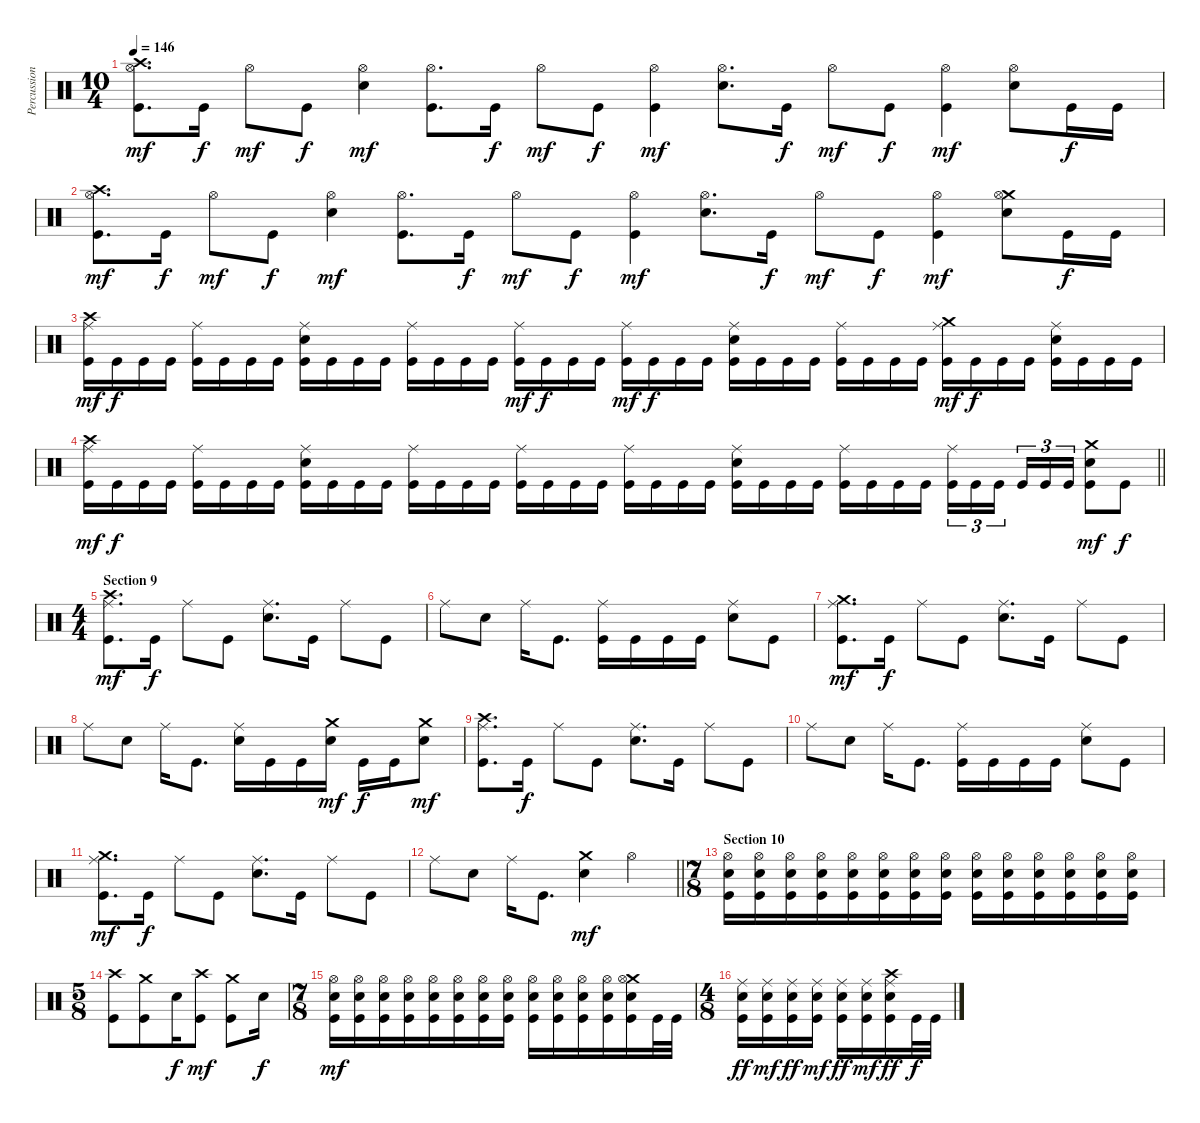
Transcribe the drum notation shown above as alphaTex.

\track ("Percussion" "Percussion") {instrument percussion}
\staff {score}
\articulation defaults
\ts (10 4)
\tempo 146
\clef neutral
\ks c
("Crash high (hit)" "Hi-Hat (open)" "Kick (hit)").8{d dy mf} "Kick (hit)".16{dy f} "Hi-Hat (open)".8{dy mf} "Kick (hit)".8{dy f} ("Hi-Hat (open)" "Electric Snare (hit)").4{dy mf} ("Hi-Hat (open)" "Kick (hit)").8{d} "Kick (hit)".16{dy f} "Hi-Hat (open)".8{dy mf} "Kick (hit)".8{dy f} ("Hi-Hat (open)" "Kick (hit)").4{dy mf} ("Hi-Hat (open)" "Electric Snare (hit)").8{d} "Kick (hit)".16{dy f} "Hi-Hat (open)".8{dy mf} "Kick (hit)".8{dy f} ("Hi-Hat (open)" "Kick (hit)").4{dy mf} ("Hi-Hat (open)" "Electric Snare (hit)").8 "Kick (hit)".16{dy f} "Kick (hit)".16 |
("Crash high (hit)" "Hi-Hat (open)" "Kick (hit)").8{d dy mf} "Kick (hit)".16{dy f} "Hi-Hat (open)".8{dy mf} "Kick (hit)".8{dy f} ("Hi-Hat (open)" "Electric Snare (hit)").4{dy mf} ("Hi-Hat (open)" "Kick (hit)").8{d} "Kick (hit)".16{dy f} "Hi-Hat (open)".8{dy mf} "Kick (hit)".8{dy f} ("Hi-Hat (open)" "Kick (hit)").4{dy mf} ("Hi-Hat (open)" "Electric Snare (hit)").8{d} "Kick (hit)".16{dy f} "Hi-Hat (open)".8{dy mf} "Kick (hit)".8{dy f} ("Hi-Hat (open)" "Kick (hit)").4{dy mf} ("Crash medium (hit)" "Hi-Hat (open)" "Electric Snare (hit)").8 "Kick (hit)".16{dy f} "Kick (hit)".16 |
("Crash high (hit)" "Ride (middle)" "Kick (hit)").16{dy mf} "Kick (hit)".16{dy f} "Kick (hit)".16 "Kick (hit)".16 ("Ride (middle)" "Kick (hit)").16 "Kick (hit)".16 "Kick (hit)".16 "Kick (hit)".16 ("Ride (middle)" "Electric Snare (hit)" "Kick (hit)").16 "Kick (hit)".16 "Kick (hit)".16 "Kick (hit)".16 ("Ride (middle)" "Kick (hit)").16 "Kick (hit)".16 "Kick (hit)".16 "Kick (hit)".16 ("Ride (middle)" "Kick (hit)").16{dy mf} "Kick (hit)".16{dy f} "Kick (hit)".16 "Kick (hit)".16 ("Ride (middle)" "Kick (hit)").16{dy mf} "Kick (hit)".16{dy f} "Kick (hit)".16 "Kick (hit)".16 ("Ride (middle)" "Electric Snare (hit)" "Kick (hit)").16 "Kick (hit)".16 "Kick (hit)".16 "Kick (hit)".16 ("Ride (middle)" "Kick (hit)").16 "Kick (hit)".16 "Kick (hit)".16 "Kick (hit)".16 ("Crash medium (hit)" "Ride (middle)" "Kick (hit)").16{dy mf} "Kick (hit)".16{dy f} "Kick (hit)".16 "Kick (hit)".16 ("Ride (middle)" "Electric Snare (hit)" "Kick (hit)").16 "Kick (hit)".16 "Kick (hit)".16 "Kick (hit)".16 |
\barLineRight lightlight
("Crash high (hit)" "Ride (middle)" "Kick (hit)").16{dy mf} "Kick (hit)".16{dy f} "Kick (hit)".16 "Kick (hit)".16 ("Ride (middle)" "Kick (hit)").16 "Kick (hit)".16 "Kick (hit)".16 "Kick (hit)".16 ("Ride (middle)" "Electric Snare (hit)" "Kick (hit)").16 "Kick (hit)".16 "Kick (hit)".16 "Kick (hit)".16 ("Ride (middle)" "Kick (hit)").16 "Kick (hit)".16 "Kick (hit)".16 "Kick (hit)".16 ("Ride (middle)" "Kick (hit)").16 "Kick (hit)".16 "Kick (hit)".16 "Kick (hit)".16 ("Ride (middle)" "Kick (hit)").16 "Kick (hit)".16 "Kick (hit)".16 "Kick (hit)".16 ("Ride (middle)" "Electric Snare (hit)" "Kick (hit)").16 "Kick (hit)".16 "Kick (hit)".16 "Kick (hit)".16 ("Ride (middle)" "Kick (hit)").16 "Kick (hit)".16 "Kick (hit)".16 "Kick (hit)".16 ("Ride (middle)" "Kick (hit)").16{tu (3 2)} "Kick (hit)".16{tu (3 2)} "Kick (hit)".16{tu (3 2) beam splitsecondary} "Kick (hit)".16{tu (3 2)} "Kick (hit)".16{tu (3 2)} "Kick (hit)".16{tu (3 2)} ("Crash medium (hit)" "Electric Snare (hit)" "Kick (hit)").8{dy mf} "Kick (hit)".8{dy f} |
\ts (4 4)
\section ("" "Section 9")
("Crash high (hit)" "Ride (middle)" "Kick (hit)").8{d dy mf} "Kick (hit)".16{dy f} "Ride (middle)".8 "Kick (hit)".8 ("Ride (middle)" "Electric Snare (hit)").8{d} "Kick (hit)".16 "Ride (middle)".8 "Kick (hit)".8 |
"Ride (middle)".8 "Electric Snare (hit)".8 "Ride (middle)".16 "Kick (hit)".8{d} ("Ride (middle)" "Kick (hit)").16 "Kick (hit)".16 "Kick (hit)".16 "Kick (hit)".16 ("Ride (middle)" "Electric Snare (hit)").8 "Kick (hit)".8 |
("Crash medium (hit)" "Ride (middle)" "Kick (hit)").8{d dy mf} "Kick (hit)".16{dy f} "Ride (middle)".8 "Kick (hit)".8 ("Ride (middle)" "Electric Snare (hit)").8{d} "Kick (hit)".16 "Ride (middle)".8 "Kick (hit)".8 |
"Ride (middle)".8 "Electric Snare (hit)".8 "Ride (middle)".16 "Kick (hit)".8{d} ("Ride (middle)" "Electric Snare (hit)").16 "Kick (hit)".16 "Kick (hit)".16 ("Crash medium (hit)" "Electric Snare (hit)").16{dy mf} "Kick (hit)".16{dy f} "Kick (hit)".16 ("Crash medium (hit)" "Electric Snare (hit)").8{dy mf} |
("Crash high (hit)" "Ride (middle)" "Kick (hit)").8{d} "Kick (hit)".16{dy f} "Ride (middle)".8 "Kick (hit)".8 ("Ride (middle)" "Electric Snare (hit)").8{d} "Kick (hit)".16 "Ride (middle)".8 "Kick (hit)".8 |
"Ride (middle)".8 "Electric Snare (hit)".8 "Ride (middle)".16 "Kick (hit)".8{d} ("Ride (middle)" "Kick (hit)").16 "Kick (hit)".16 "Kick (hit)".16 "Kick (hit)".16 ("Ride (middle)" "Electric Snare (hit)").8 "Kick (hit)".8 |
("Crash medium (hit)" "Ride (middle)" "Kick (hit)").8{d dy mf} "Kick (hit)".16{dy f} "Ride (middle)".8 "Kick (hit)".8 ("Ride (middle)" "Electric Snare (hit)").8{d} "Kick (hit)".16 "Ride (middle)".8 "Kick (hit)".8 |
\barLineRight lightlight "Ride (middle)".8 "Electric Snare (hit)".8 "Ride (middle)".16 "Kick (hit)".8{d}
("Crash medium (hit)" "Electric Snare (hit)").4{dy mf} "Hi-Hat (open)".4 |
\ts (7 8)
\section ("" "Section 10")
("Hi-Hat (open)" "Electric Snare (hit)" "Kick (hit)").16 ("Hi-Hat (open)" "Electric Snare (hit)" "Kick (hit)").16 ("Hi-Hat (open)" "Electric Snare (hit)" "Kick (hit)").16 ("Hi-Hat (open)" "Electric Snare (hit)" "Kick (hit)").16 ("Hi-Hat (open)" "Electric Snare (hit)" "Kick (hit)").16 ("Hi-Hat (open)" "Electric Snare (hit)" "Kick (hit)").16 ("Hi-Hat (open)" "Electric Snare (hit)" "Kick (hit)").16 ("Hi-Hat (open)" "Electric Snare (hit)" "Kick (hit)").16 ("Hi-Hat (open)" "Electric Snare (hit)" "Kick (hit)").16 ("Hi-Hat (open)" "Electric Snare (hit)" "Kick (hit)").16 ("Hi-Hat (open)" "Electric Snare (hit)" "Kick (hit)").16 ("Hi-Hat (open)" "Electric Snare (hit)" "Kick (hit)").16 ("Hi-Hat (open)" "Electric Snare (hit)" "Kick (hit)").16 ("Hi-Hat (open)" "Electric Snare (hit)" "Kick (hit)").16 |
\ts (5 8)
("Crash high (hit)" "Kick (hit)").8 ("Crash medium (hit)" "Kick (hit)").8 "Electric Snare (hit)".16{dy f} ("Crash high (hit)" "Kick (hit)").8{dy mf} ("Crash medium (hit)" "Kick (hit)").8 "Electric Snare (hit)".16{dy f} |
\ts (7 8)
("Hi-Hat (open)" "Electric Snare (hit)" "Kick (hit)").16{dy mf} ("Hi-Hat (open)" "Electric Snare (hit)" "Kick (hit)").16 ("Hi-Hat (open)" "Electric Snare (hit)" "Kick (hit)").16 ("Hi-Hat (open)" "Electric Snare (hit)" "Kick (hit)").16 ("Hi-Hat (open)" "Electric Snare (hit)" "Kick (hit)").16 ("Hi-Hat (open)" "Electric Snare (hit)" "Kick (hit)").16 ("Hi-Hat (open)" "Electric Snare (hit)" "Kick (hit)").16 ("Hi-Hat (open)" "Electric Snare (hit)" "Kick (hit)").16 ("Hi-Hat (open)" "Electric Snare (hit)" "Kick (hit)").16 ("Hi-Hat (open)" "Electric Snare (hit)" "Kick (hit)").16 ("Hi-Hat (open)" "Electric Snare (hit)" "Kick (hit)").16 ("Hi-Hat (open)" "Electric Snare (hit)" "Kick (hit)").16 ("Crash medium (hit)" "Hi-Hat (open)" "Electric Snare (hit)" "Kick (hit)").16 "Kick (hit)".32 "Kick (hit)".32 |
\ts (4 8)
("Ride (middle)" "Electric Snare (hit)" "Kick (hit)").16{dy ff} ("Ride (middle)" "Electric Snare (hit)" "Kick (hit)").16{dy mf} ("Ride (middle)" "Electric Snare (hit)" "Kick (hit)").16{dy ff} ("Ride (middle)" "Electric Snare (hit)" "Kick (hit)").16{dy mf} ("Ride (middle)" "Electric Snare (hit)" "Kick (hit)").16{dy ff} ("Ride (middle)" "Electric Snare (hit)" "Kick (hit)").16{dy mf} ("Crash high (hit)" "Ride (middle)" "Electric Snare (hit)" "Kick (hit)").16{dy ff} "Kick (hit)".32{dy f} "Kick (hit)".32
